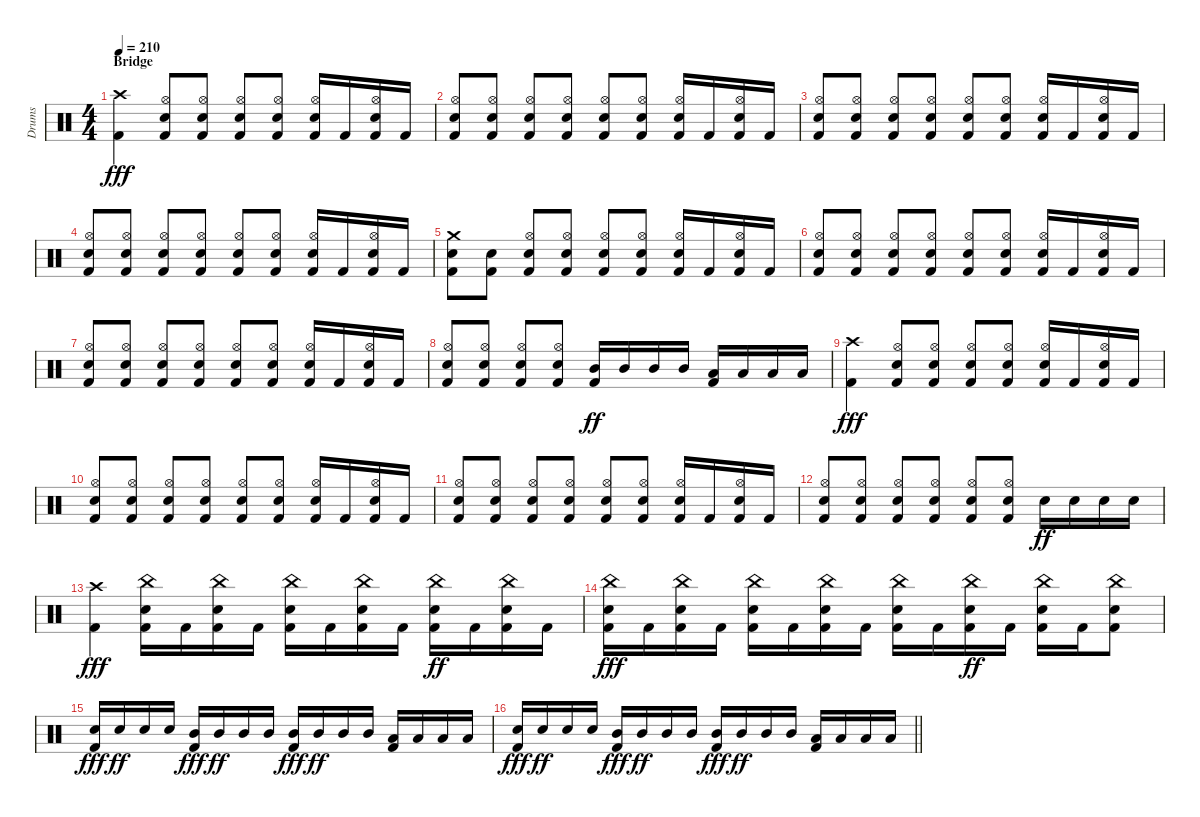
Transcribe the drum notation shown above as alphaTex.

\track ("Drums" "Drums") {instrument percussion}
\staff {score}
\articulation defaults
\ts (4 4)
\section ("" "Bridge")
\tempo 210
\clef neutral
\ks c
("Crash high (hit)" "Kick (hit) 2").4{dy fff} ("Hi-Hat (open)" "Snare (hit) 2" "Kick (hit) 2").8 ("Hi-Hat (open)" "Snare (hit) 2" "Kick (hit) 2").8 ("Hi-Hat (open)" "Snare (hit) 2" "Kick (hit) 2").8 ("Hi-Hat (open)" "Snare (hit) 2" "Kick (hit) 2").8 ("Hi-Hat (open)" "Snare (hit) 2" "Kick (hit) 2").16 "Kick (hit) 2".16 ("Hi-Hat (open)" "Snare (hit) 2" "Kick (hit) 2").16 "Kick (hit) 2".16 |
("Hi-Hat (open)" "Snare (hit) 2" "Kick (hit) 2").8 ("Hi-Hat (open)" "Snare (hit) 2" "Kick (hit) 2").8 ("Hi-Hat (open)" "Snare (hit) 2" "Kick (hit) 2").8 ("Hi-Hat (open)" "Snare (hit) 2" "Kick (hit) 2").8 ("Hi-Hat (open)" "Snare (hit) 2" "Kick (hit) 2").8 ("Hi-Hat (open)" "Snare (hit) 2" "Kick (hit) 2").8 ("Hi-Hat (open)" "Snare (hit) 2" "Kick (hit) 2").16 "Kick (hit) 2".16 ("Hi-Hat (open)" "Snare (hit) 2" "Kick (hit) 2").16 "Kick (hit) 2".16 |
("Hi-Hat (open)" "Snare (hit) 2" "Kick (hit) 2").8 ("Hi-Hat (open)" "Snare (hit) 2" "Kick (hit) 2").8 ("Hi-Hat (open)" "Snare (hit) 2" "Kick (hit) 2").8 ("Hi-Hat (open)" "Snare (hit) 2" "Kick (hit) 2").8 ("Hi-Hat (open)" "Snare (hit) 2" "Kick (hit) 2").8 ("Hi-Hat (open)" "Snare (hit) 2" "Kick (hit) 2").8 ("Hi-Hat (open)" "Snare (hit) 2" "Kick (hit) 2").16 "Kick (hit) 2".16 ("Hi-Hat (open)" "Snare (hit) 2" "Kick (hit) 2").16 "Kick (hit) 2".16 |
("Hi-Hat (open)" "Snare (hit) 2" "Kick (hit) 2").8 ("Hi-Hat (open)" "Snare (hit) 2" "Kick (hit) 2").8 ("Hi-Hat (open)" "Snare (hit) 2" "Kick (hit) 2").8 ("Hi-Hat (open)" "Snare (hit) 2" "Kick (hit) 2").8 ("Hi-Hat (open)" "Snare (hit) 2" "Kick (hit) 2").8 ("Hi-Hat (open)" "Snare (hit) 2" "Kick (hit) 2").8 ("Hi-Hat (open)" "Snare (hit) 2" "Kick (hit) 2").16 "Kick (hit) 2".16 ("Hi-Hat (open)" "Snare (hit) 2" "Kick (hit) 2").16 "Kick (hit) 2".16 |
("Crash medium (hit)" "Snare (hit) 2" "Kick (hit) 2").8 ("Snare (hit) 2" "Kick (hit) 2").8 ("Hi-Hat (open)" "Snare (hit) 2" "Kick (hit) 2").8 ("Hi-Hat (open)" "Snare (hit) 2" "Kick (hit) 2").8 ("Hi-Hat (open)" "Snare (hit) 2" "Kick (hit) 2").8 ("Hi-Hat (open)" "Snare (hit) 2" "Kick (hit) 2").8 ("Hi-Hat (open)" "Snare (hit) 2" "Kick (hit) 2").16 "Kick (hit) 2".16 ("Hi-Hat (open)" "Snare (hit) 2" "Kick (hit) 2").16 "Kick (hit) 2".16 |
("Hi-Hat (open)" "Snare (hit) 2" "Kick (hit) 2").8 ("Hi-Hat (open)" "Snare (hit) 2" "Kick (hit) 2").8 ("Hi-Hat (open)" "Snare (hit) 2" "Kick (hit) 2").8 ("Hi-Hat (open)" "Snare (hit) 2" "Kick (hit) 2").8 ("Hi-Hat (open)" "Snare (hit) 2" "Kick (hit) 2").8 ("Hi-Hat (open)" "Snare (hit) 2" "Kick (hit) 2").8 ("Hi-Hat (open)" "Snare (hit) 2" "Kick (hit) 2").16 "Kick (hit) 2".16 ("Hi-Hat (open)" "Snare (hit) 2" "Kick (hit) 2").16 "Kick (hit) 2".16 |
("Hi-Hat (open)" "Snare (hit) 2" "Kick (hit) 2").8 ("Hi-Hat (open)" "Snare (hit) 2" "Kick (hit) 2").8 ("Hi-Hat (open)" "Snare (hit) 2" "Kick (hit) 2").8 ("Hi-Hat (open)" "Snare (hit) 2" "Kick (hit) 2").8 ("Hi-Hat (open)" "Snare (hit) 2" "Kick (hit) 2").8 ("Hi-Hat (open)" "Snare (hit) 2" "Kick (hit) 2").8 ("Hi-Hat (open)" "Snare (hit) 2" "Kick (hit) 2").16 "Kick (hit) 2".16 ("Hi-Hat (open)" "Snare (hit) 2" "Kick (hit) 2").16 "Kick (hit) 2".16 |
("Hi-Hat (open)" "Snare (hit) 2" "Kick (hit) 2").8 ("Hi-Hat (open)" "Snare (hit) 2" "Kick (hit) 2").8 ("Hi-Hat (open)" "Snare (hit) 2" "Kick (hit) 2").8 ("Hi-Hat (open)" "Snare (hit) 2" "Kick (hit) 2").8 ("Mid Tom (hit)" "Kick (hit) 2").16{dy ff} "Mid Tom (hit)".16 "Mid Tom (hit)".16 "Mid Tom (hit)".16 ("Low Tom (hit)" "Kick (hit) 2").16 "Low Tom (hit)".16 "Low Tom (hit)".16 "Low Tom (hit)".16 |
("Crash high (hit)" "Kick (hit) 2").4{dy fff} ("Hi-Hat (open)" "Snare (hit) 2" "Kick (hit) 2").8 ("Hi-Hat (open)" "Snare (hit) 2" "Kick (hit) 2").8 ("Hi-Hat (open)" "Snare (hit) 2" "Kick (hit) 2").8 ("Hi-Hat (open)" "Snare (hit) 2" "Kick (hit) 2").8 ("Hi-Hat (open)" "Snare (hit) 2" "Kick (hit) 2").16 "Kick (hit) 2".16 ("Hi-Hat (open)" "Snare (hit) 2" "Kick (hit) 2").16 "Kick (hit) 2".16 |
("Hi-Hat (open)" "Snare (hit) 2" "Kick (hit) 2").8 ("Hi-Hat (open)" "Snare (hit) 2" "Kick (hit) 2").8 ("Hi-Hat (open)" "Snare (hit) 2" "Kick (hit) 2").8 ("Hi-Hat (open)" "Snare (hit) 2" "Kick (hit) 2").8 ("Hi-Hat (open)" "Snare (hit) 2" "Kick (hit) 2").8 ("Hi-Hat (open)" "Snare (hit) 2" "Kick (hit) 2").8 ("Hi-Hat (open)" "Snare (hit) 2" "Kick (hit) 2").16 "Kick (hit) 2".16 ("Hi-Hat (open)" "Snare (hit) 2" "Kick (hit) 2").16 "Kick (hit) 2".16 |
("Hi-Hat (open)" "Snare (hit) 2" "Kick (hit) 2").8 ("Hi-Hat (open)" "Snare (hit) 2" "Kick (hit) 2").8 ("Hi-Hat (open)" "Snare (hit) 2" "Kick (hit) 2").8 ("Hi-Hat (open)" "Snare (hit) 2" "Kick (hit) 2").8 ("Hi-Hat (open)" "Snare (hit) 2" "Kick (hit) 2").8 ("Hi-Hat (open)" "Snare (hit) 2" "Kick (hit) 2").8 ("Hi-Hat (open)" "Snare (hit) 2" "Kick (hit) 2").16 "Kick (hit) 2".16 ("Hi-Hat (open)" "Snare (hit) 2" "Kick (hit) 2").16 "Kick (hit) 2".16 |
("Hi-Hat (open)" "Snare (hit) 2" "Kick (hit) 2").8 ("Hi-Hat (open)" "Snare (hit) 2" "Kick (hit) 2").8 ("Hi-Hat (open)" "Snare (hit) 2" "Kick (hit) 2").8 ("Hi-Hat (open)" "Snare (hit) 2" "Kick (hit) 2").8 ("Hi-Hat (open)" "Snare (hit) 2" "Kick (hit) 2").8 ("Hi-Hat (open)" "Snare (hit) 2" "Kick (hit) 2").8 "Snare (hit) 2".16{dy ff} "Snare (hit) 2".16 "Snare (hit) 2".16 "Snare (hit) 2".16 |
("Crash high (hit)" "Kick (hit) 2").4{dy fff} ("China (hit)" "Snare (hit) 2" "Kick (hit) 2").16 "Kick (hit) 2".16 ("China (hit)" "Snare (hit) 2" "Kick (hit) 2").16 "Kick (hit) 2".16 ("China (hit)" "Snare (hit) 2" "Kick (hit) 2").16 "Kick (hit) 2".16 ("China (hit)" "Snare (hit) 2" "Kick (hit) 2").16 "Kick (hit) 2".16 ("China (hit)" "Snare (hit) 2" "Kick (hit) 2").16{dy ff} "Kick (hit) 2".16 ("China (hit)" "Snare (hit) 2" "Kick (hit) 2").16 "Kick (hit) 2".16 |
("China (hit)" "Snare (hit) 2" "Kick (hit) 2").16{dy fff} "Kick (hit) 2".16 ("China (hit)" "Snare (hit) 2" "Kick (hit) 2").16 "Kick (hit) 2".16 ("China (hit)" "Snare (hit) 2" "Kick (hit) 2").16 "Kick (hit) 2".16 ("China (hit)" "Snare (hit) 2" "Kick (hit) 2").16 "Kick (hit) 2".16 ("China (hit)" "Snare (hit) 2" "Kick (hit) 2").16 "Kick (hit) 2".16 ("China (hit)" "Snare (hit) 2" "Kick (hit) 2").16{dy ff} "Kick (hit) 2".16 ("China (hit)" "Snare (hit) 2" "Kick (hit) 2").16 "Kick (hit) 2".16 ("China (hit)" "Snare (hit) 2" "Kick (hit) 2").8 |
("Snare (hit) 2" "Kick (hit) 2").16{dy fff} "Snare (hit) 2".16{dy ff} "Snare (hit) 2".16 "Snare (hit) 2".16 ("Mid Tom (hit)" "Kick (hit) 2").16{dy fff} "Mid Tom (hit)".16{dy ff} "Mid Tom (hit)".16 "Mid Tom (hit)".16 ("Mid Tom (hit)" "Kick (hit) 2").16{dy fff} "Mid Tom (hit)".16{dy ff} "Mid Tom (hit)".16 "Mid Tom (hit)".16 ("Low Tom (hit)" "Kick (hit) 2").16 "Low Tom (hit)".16 "Low Tom (hit)".16 "Low Tom (hit)".16 |
\barLineRight lightlight
("Snare (hit) 2" "Kick (hit) 2").16{dy fff} "Snare (hit) 2".16{dy ff} "Snare (hit) 2".16 "Snare (hit) 2".16 ("Mid Tom (hit)" "Kick (hit) 2").16{dy fff} "Mid Tom (hit)".16{dy ff} "Mid Tom (hit)".16 "Mid Tom (hit)".16 ("Mid Tom (hit)" "Kick (hit) 2").16{dy fff} "Mid Tom (hit)".16{dy ff} "Mid Tom (hit)".16 "Mid Tom (hit)".16 ("Low Tom (hit)" "Kick (hit) 2").16 "Low Tom (hit)".16 "Low Tom (hit)".16 "Low Tom (hit)".16
